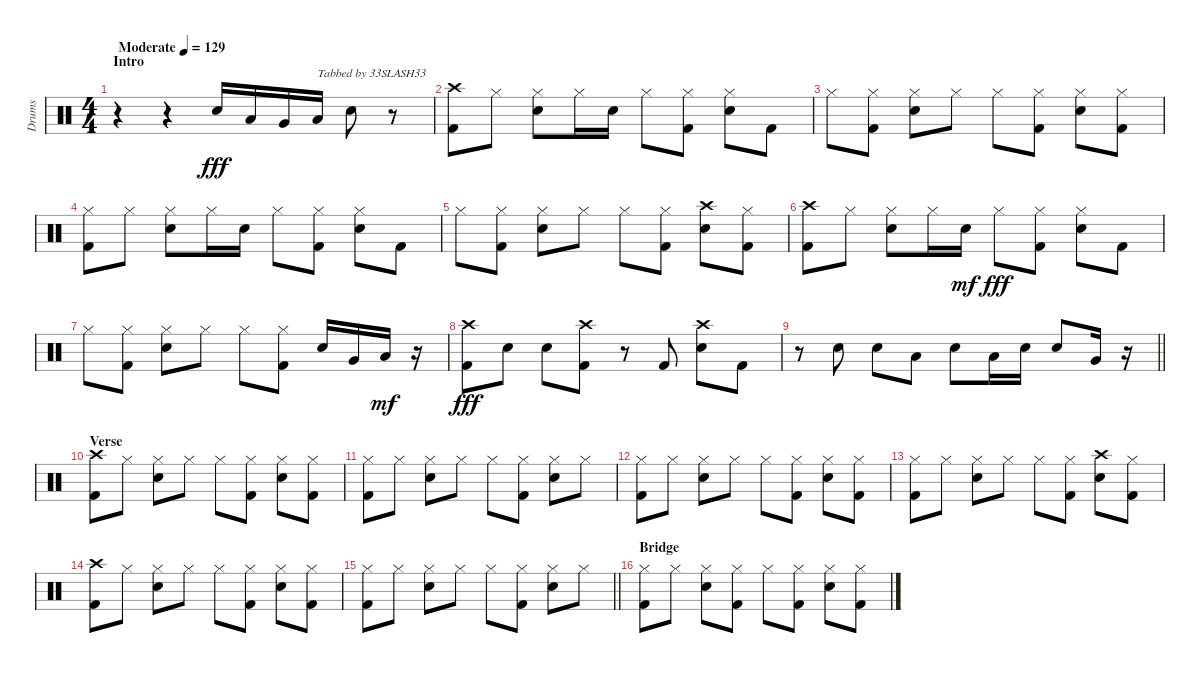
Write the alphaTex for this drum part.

\track ("Drums" "Drums") {instrument percussion}
\staff {score}
\articulation defaults
\ts (4 4)
\section ("" "Intro")
\tempo (129 "Moderate")
\clef neutral
\ks c
r.4{dy fff} r.4 "Snare (hit) 2".16 "Low Tom (hit)".16 "Very Low Tom (hit)".16 "Low Floor Tom (hit)".16{txt "Tabbed by 33SLASH33"} "Snare (hit) 2".8 r.8 |
("Crash high (hit)" "Kick (hit) 2").8 "Hi-Hat (closed)".8 ("Hi-Hat (closed)" "Snare (hit) 2").8 "Hi-Hat (closed)".16 "Snare (hit) 2".16 "Hi-Hat (closed)".8 ("Hi-Hat (closed)" "Kick (hit) 2").8 ("Hi-Hat (closed)" "Snare (hit) 2").8 "Kick (hit) 2".8 |
"Hi-Hat (closed)".8 ("Hi-Hat (closed)" "Kick (hit) 2").8 ("Hi-Hat (closed)" "Snare (hit) 2").8 "Hi-Hat (closed)".8 "Hi-Hat (closed)".8 ("Hi-Hat (closed)" "Kick (hit) 2").8 ("Hi-Hat (closed)" "Snare (hit) 2").8 ("Hi-Hat (closed)" "Kick (hit) 2").8 |
("Hi-Hat (closed)" "Kick (hit) 2").8 "Hi-Hat (closed)".8 ("Hi-Hat (closed)" "Snare (hit) 2").8 "Hi-Hat (closed)".16 "Snare (hit) 2".16 "Hi-Hat (closed)".8 ("Hi-Hat (closed)" "Kick (hit) 2").8 ("Hi-Hat (closed)" "Snare (hit) 2").8 "Kick (hit) 2".8 |
"Hi-Hat (closed)".8 ("Hi-Hat (closed)" "Kick (hit) 2").8 ("Hi-Hat (closed)" "Snare (hit) 2").8 "Hi-Hat (closed)".8 "Hi-Hat (closed)".8 ("Hi-Hat (closed)" "Kick (hit) 2").8 ("Crash high (hit)" "Snare (hit) 2").8 ("Hi-Hat (closed)" "Kick (hit) 2").8 |
("Crash high (hit)" "Kick (hit) 2").8 "Hi-Hat (closed)".8 ("Hi-Hat (closed)" "Snare (hit) 2").8 "Hi-Hat (closed)".16 "Snare (hit) 2".16{dy mf} "Hi-Hat (closed)".8{dy fff} ("Hi-Hat (closed)" "Kick (hit) 2").8 ("Hi-Hat (closed)" "Snare (hit) 2").8 "Kick (hit) 2".8 |
"Hi-Hat (closed)".8 ("Hi-Hat (closed)" "Kick (hit) 2").8 ("Hi-Hat (closed)" "Snare (hit) 2").8 "Hi-Hat (closed)".8 "Hi-Hat (closed)".8 ("Hi-Hat (closed)" "Kick (hit) 2").8 "Snare (hit) 2".16 "Very Low Tom (hit)".16 "Low Floor Tom (hit)".16{dy mf} r.16 |
("Crash high (hit)" "Kick (hit) 2").8{dy fff} "Snare (hit) 2".8 "Snare (hit) 2".8 ("Crash high (hit)" "Kick (hit) 2").8 r.8 "Kick (hit) 2".8 ("Crash high (hit)" "Snare (hit) 2").8 "Kick (hit) 2".8 |
\barLineRight lightlight
r.8 "Snare (hit) 2".8 "Snare (hit) 2".8 "Low Floor Tom (hit)".8 "Snare (hit) 2".8 "Low Tom (hit)".16 "Snare (hit) 2".16 "Snare (hit) 2".8 "Very Low Tom (hit)".16 r.16 |
\section ("" "Verse")
("Crash high (hit)" "Kick (hit) 2").8 "Hi-Hat (closed)".8 ("Hi-Hat (closed)" "Snare (hit) 2").8 "Hi-Hat (closed)".8 "Hi-Hat (closed)".8 ("Hi-Hat (closed)" "Kick (hit) 2").8 ("Hi-Hat (closed)" "Snare (hit) 2").8 ("Hi-Hat (closed)" "Kick (hit) 2").8 |
("Hi-Hat (closed)" "Kick (hit) 2").8 "Hi-Hat (closed)".8 ("Hi-Hat (closed)" "Snare (hit) 2").8 "Hi-Hat (closed)".8 "Hi-Hat (closed)".8 ("Hi-Hat (closed)" "Kick (hit) 2").8 ("Hi-Hat (closed)" "Snare (hit) 2").8 "Hi-Hat (closed)".8 |
("Hi-Hat (closed)" "Kick (hit) 2").8 "Hi-Hat (closed)".8 ("Hi-Hat (closed)" "Snare (hit) 2").8 "Hi-Hat (closed)".8 "Hi-Hat (closed)".8 ("Hi-Hat (closed)" "Kick (hit) 2").8 ("Hi-Hat (closed)" "Snare (hit) 2").8 ("Hi-Hat (closed)" "Kick (hit) 2").8 |
("Hi-Hat (closed)" "Kick (hit) 2").8 "Hi-Hat (closed)".8 ("Hi-Hat (closed)" "Snare (hit) 2").8 "Hi-Hat (closed)".8 "Hi-Hat (closed)".8 ("Hi-Hat (closed)" "Kick (hit) 2").8 ("Crash high (hit)" "Snare (hit) 2").8 ("Hi-Hat (closed)" "Kick (hit) 2").8 |
("Crash high (hit)" "Kick (hit) 2").8 "Hi-Hat (closed)".8 ("Hi-Hat (closed)" "Snare (hit) 2").8 "Hi-Hat (closed)".8 "Hi-Hat (closed)".8 ("Hi-Hat (closed)" "Kick (hit) 2").8 ("Hi-Hat (closed)" "Snare (hit) 2").8 ("Hi-Hat (closed)" "Kick (hit) 2").8 |
\barLineRight lightlight
("Hi-Hat (closed)" "Kick (hit) 2").8 "Hi-Hat (closed)".8 ("Hi-Hat (closed)" "Snare (hit) 2").8 "Hi-Hat (closed)".8 "Hi-Hat (closed)".8 ("Hi-Hat (closed)" "Kick (hit) 2").8 ("Hi-Hat (closed)" "Snare (hit) 2").8 "Hi-Hat (closed)".8 |
\section ("" "Bridge")
("Hi-Hat (closed)" "Kick (hit) 2").8 "Hi-Hat (closed)".8 ("Hi-Hat (closed)" "Snare (hit) 2").8 ("Hi-Hat (closed)" "Kick (hit) 2").8 "Hi-Hat (closed)".8 ("Hi-Hat (closed)" "Kick (hit) 2").8 ("Hi-Hat (closed)" "Snare (hit) 2").8 ("Hi-Hat (closed)" "Kick (hit) 2").8
